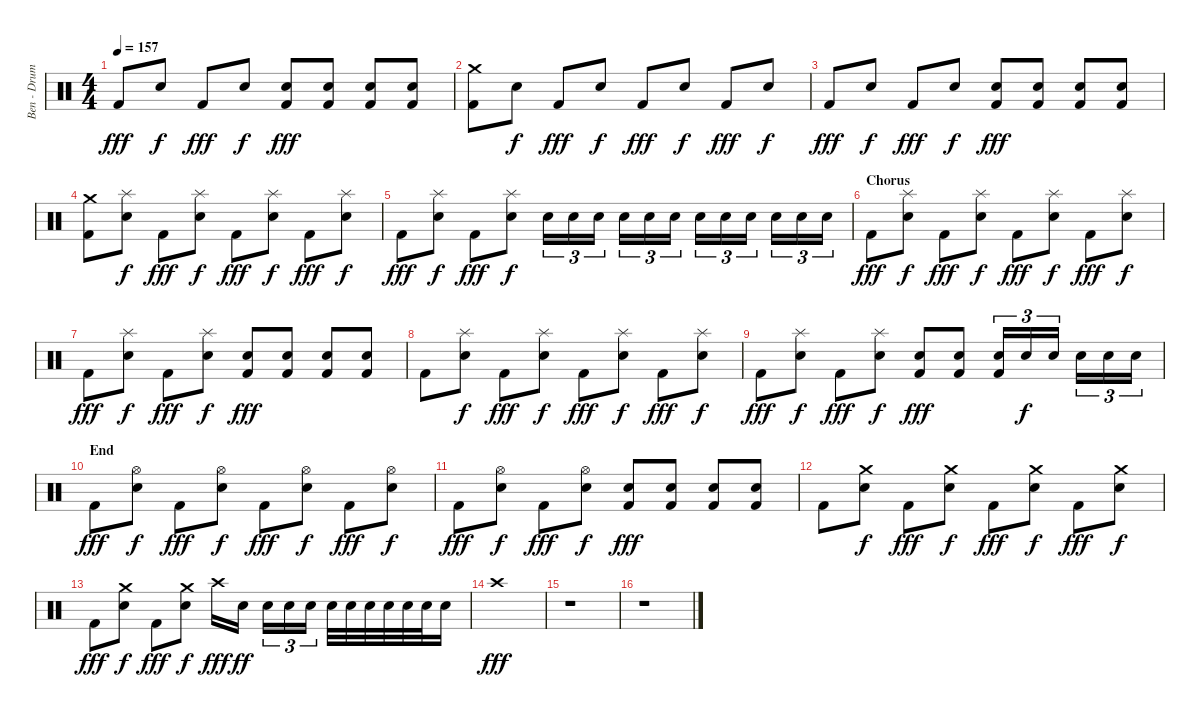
\track ("Ben - Drums" "Ben - Drum") {instrument percussion}
\staff {score}
\articulation defaults
\ts (4 4)
\tempo 157
\clef neutral
\ks c "Kick (hit) 2".8{dy fff} "Electric Snare (hit)".8{dy f} "Kick (hit) 2".8{dy fff} "Electric Snare (hit)".8{dy f}
("Electric Snare (hit)" "Kick (hit) 2").8{dy fff} ("Electric Snare (hit)" "Kick (hit) 2").8 ("Electric Snare (hit)" "Kick (hit) 2").8 ("Electric Snare (hit)" "Kick (hit) 2").8 |
("Crash medium (hit)" "Kick (hit) 2").8 "Electric Snare (hit)".8{dy f} "Kick (hit) 2".8{dy fff} "Electric Snare (hit)".8{dy f} "Kick (hit) 2".8{dy fff} "Electric Snare (hit)".8{dy f} "Kick (hit) 2".8{dy fff} "Electric Snare (hit)".8{dy f} |
"Kick (hit) 2".8{dy fff} "Electric Snare (hit)".8{dy f} "Kick (hit) 2".8{dy fff} "Electric Snare (hit)".8{dy f} ("Electric Snare (hit)" "Kick (hit) 2").8{dy fff} ("Electric Snare (hit)" "Kick (hit) 2").8 ("Electric Snare (hit)" "Kick (hit) 2").8 ("Electric Snare (hit)" "Kick (hit) 2").8 |
("Crash medium (hit)" "Kick (hit) 2").8 ("Splash (hit)" "Electric Snare (hit)").8{dy f} "Kick (hit) 2".8{dy fff} ("Splash (hit)" "Electric Snare (hit)").8{dy f} "Kick (hit) 2".8{dy fff} ("Splash (hit)" "Electric Snare (hit)").8{dy f} "Kick (hit) 2".8{dy fff} ("Splash (hit)" "Electric Snare (hit)").8{dy f} |
"Kick (hit) 2".8{dy fff} ("Splash (hit)" "Electric Snare (hit)").8{dy f} "Kick (hit) 2".8{dy fff} ("Splash (hit)" "Electric Snare (hit)").8{dy f} "Electric Snare (hit)".16{tu (3 2)} "Electric Snare (hit)".16{tu (3 2)} "Electric Snare (hit)".16{tu (3 2)} "Electric Snare (hit)".16{tu (3 2)} "Electric Snare (hit)".16{tu (3 2)} "Electric Snare (hit)".16{tu (3 2)} "Electric Snare (hit)".16{tu (3 2)} "Electric Snare (hit)".16{tu (3 2)} "Electric Snare (hit)".16{tu (3 2)} "Electric Snare (hit)".16{tu (3 2)} "Electric Snare (hit)".16{tu (3 2)} "Electric Snare (hit)".16{tu (3 2)} |
\section ("" "Chorus")
"Kick (hit) 2".8{dy fff} ("Splash (hit)" "Electric Snare (hit)").8{dy f} "Kick (hit) 2".8{dy fff} ("Splash (hit)" "Electric Snare (hit)").8{dy f} "Kick (hit) 2".8{dy fff} ("Splash (hit)" "Electric Snare (hit)").8{dy f} "Kick (hit) 2".8{dy fff} ("Splash (hit)" "Electric Snare (hit)").8{dy f} |
"Kick (hit) 2".8{dy fff} ("Splash (hit)" "Electric Snare (hit)").8{dy f} "Kick (hit) 2".8{dy fff} ("Splash (hit)" "Electric Snare (hit)").8{dy f} ("Electric Snare (hit)" "Kick (hit) 2").8{dy fff} ("Electric Snare (hit)" "Kick (hit) 2").8 ("Electric Snare (hit)" "Kick (hit) 2").8 ("Electric Snare (hit)" "Kick (hit) 2").8 |
"Kick (hit) 2".8 ("Splash (hit)" "Electric Snare (hit)").8{dy f} "Kick (hit) 2".8{dy fff} ("Splash (hit)" "Electric Snare (hit)").8{dy f} "Kick (hit) 2".8{dy fff} ("Splash (hit)" "Electric Snare (hit)").8{dy f} "Kick (hit) 2".8{dy fff} ("Splash (hit)" "Electric Snare (hit)").8{dy f} |
"Kick (hit) 2".8{dy fff} ("Splash (hit)" "Electric Snare (hit)").8{dy f} "Kick (hit) 2".8{dy fff} ("Splash (hit)" "Electric Snare (hit)").8{dy f} ("Electric Snare (hit)" "Kick (hit) 2").8{dy fff} ("Electric Snare (hit)" "Kick (hit) 2").8 ("Electric Snare (hit)" "Kick (hit) 2").16{tu (3 2)} "Electric Snare (hit)".16{tu (3 2) dy f} "Electric Snare (hit)".16{tu (3 2)} "Electric Snare (hit)".16{tu (3 2)} "Electric Snare (hit)".16{tu (3 2)} "Electric Snare (hit)".16{tu (3 2)} |
\section ("" "End")
"Kick (hit) 2".8{dy fff} ("Hi-Hat (open)" "Electric Snare (hit)").8{dy f} "Kick (hit) 2".8{dy fff} ("Hi-Hat (open)" "Electric Snare (hit)").8{dy f} "Kick (hit) 2".8{dy fff} ("Hi-Hat (open)" "Electric Snare (hit)").8{dy f} "Kick (hit) 2".8{dy fff} ("Hi-Hat (open)" "Electric Snare (hit)").8{dy f} |
"Kick (hit) 2".8{dy fff} ("Hi-Hat (open)" "Electric Snare (hit)").8{dy f} "Kick (hit) 2".8{dy fff} ("Hi-Hat (open)" "Electric Snare (hit)").8{dy f} ("Electric Snare (hit)" "Kick (hit) 2").8{dy fff} ("Electric Snare (hit)" "Kick (hit) 2").8 ("Electric Snare (hit)" "Kick (hit) 2").8 ("Electric Snare (hit)" "Kick (hit) 2").8 |
"Kick (hit) 2".8 ("Crash medium (hit)" "Electric Snare (hit)").8{dy f} "Kick (hit) 2".8{dy fff} ("Crash medium (hit)" "Electric Snare (hit)").8{dy f} "Kick (hit) 2".8{dy fff} ("Crash medium (hit)" "Electric Snare (hit)").8{dy f} "Kick (hit) 2".8{dy fff} ("Crash medium (hit)" "Electric Snare (hit)").8{dy f} |
"Kick (hit) 2".8{dy fff} ("Crash medium (hit)" "Electric Snare (hit)").8{dy f} "Kick (hit) 2".8{dy fff} ("Crash medium (hit)" "Electric Snare (hit)").8{dy f} "Crash high (hit)".16{dy fff} "Electric Snare (hit)".16{dy ff} "Electric Snare (hit)".16{tu (3 2)} "Electric Snare (hit)".16{tu (3 2)} "Electric Snare (hit)".16{tu (3 2)} "Electric Snare (hit)".32 "Electric Snare (hit)".32 "Electric Snare (hit)".32 "Electric Snare (hit)".32 "Electric Snare (hit)".32 "Electric Snare (hit)".32 "Electric Snare (hit)".16 |
"Crash high (hit)".1{dy fff} |
r.1 |
r.1
